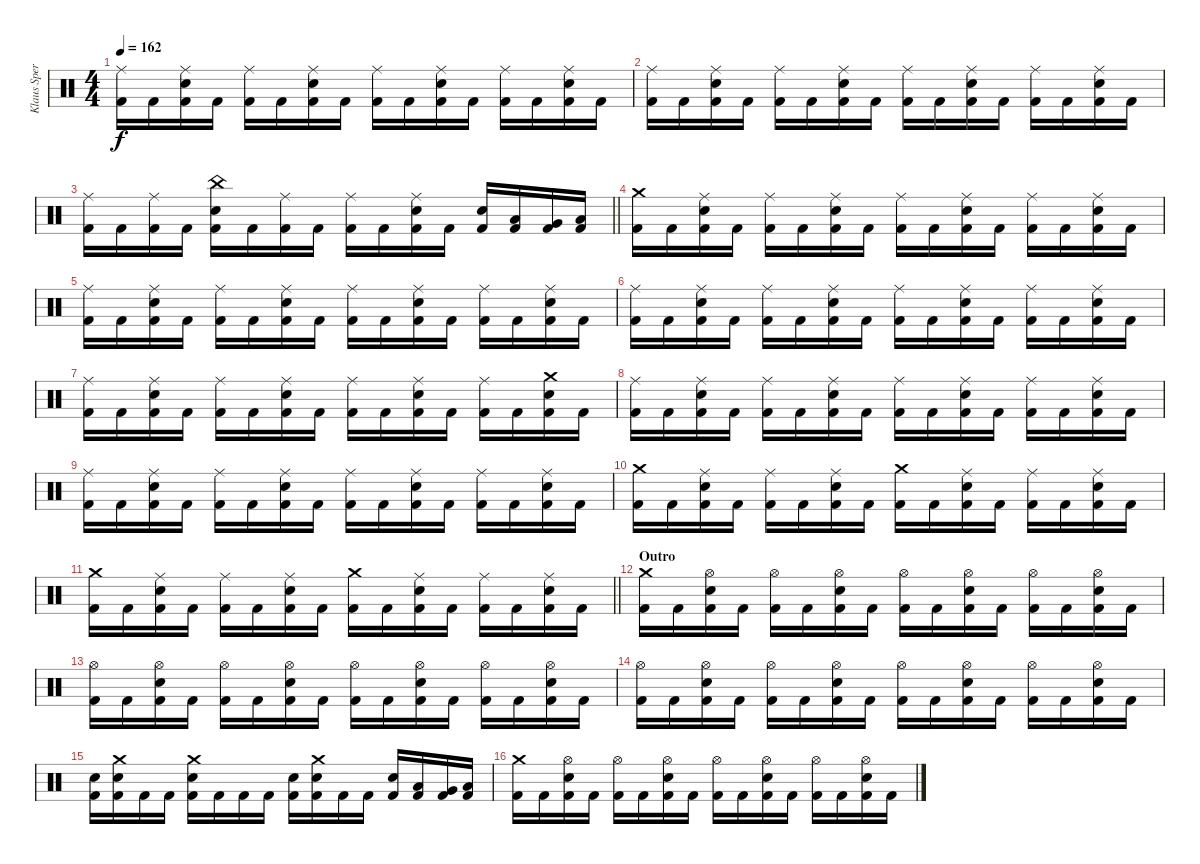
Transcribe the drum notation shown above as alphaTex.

\track ("Klaus Sperling" "Klaus Sper") {instrument percussion}
\staff {score}
\articulation defaults
\ts (4 4)
\tempo 162
\clef neutral
\ks c
("Ride (middle)" "Kick (hit) 2").16{dy f} "Kick (hit) 2".16 ("Ride (middle)" "Electric Snare (hit)" "Kick (hit) 2").16 "Kick (hit) 2".16 ("Ride (middle)" "Kick (hit) 2").16 "Kick (hit) 2".16 ("Ride (middle)" "Electric Snare (hit)" "Kick (hit) 2").16 "Kick (hit) 2".16 ("Ride (middle)" "Kick (hit) 2").16 "Kick (hit) 2".16 ("Ride (middle)" "Electric Snare (hit)" "Kick (hit) 2").16 "Kick (hit) 2".16 ("Ride (middle)" "Kick (hit) 2").16 "Kick (hit) 2".16 ("Ride (middle)" "Electric Snare (hit)" "Kick (hit) 2").16 "Kick (hit) 2".16 |
("Ride (middle)" "Kick (hit) 2").16 "Kick (hit) 2".16 ("Ride (middle)" "Electric Snare (hit)" "Kick (hit) 2").16 "Kick (hit) 2".16 ("Ride (middle)" "Kick (hit) 2").16 "Kick (hit) 2".16 ("Ride (middle)" "Electric Snare (hit)" "Kick (hit) 2").16 "Kick (hit) 2".16 ("Ride (middle)" "Kick (hit) 2").16 "Kick (hit) 2".16 ("Ride (middle)" "Electric Snare (hit)" "Kick (hit) 2").16 "Kick (hit) 2".16 ("Ride (middle)" "Kick (hit) 2").16 "Kick (hit) 2".16 ("Ride (middle)" "Electric Snare (hit)" "Kick (hit) 2").16 "Kick (hit) 2".16 |
\barLineRight lightlight
("Ride (middle)" "Kick (hit) 2").16 "Kick (hit) 2".16 ("Ride (middle)" "Kick (hit) 2").16 "Kick (hit) 2".16 ("China (hit)" "Electric Snare (hit)" "Kick (hit) 2").16 "Kick (hit) 2".16 ("Ride (middle)" "Kick (hit) 2").16 "Kick (hit) 2".16 ("Ride (middle)" "Kick (hit) 2").16 "Kick (hit) 2".16 ("Ride (middle)" "Electric Snare (hit)" "Kick (hit) 2").16 "Kick (hit) 2".16 ("Electric Snare (hit)" "Kick (hit) 2").16 ("Low Tom (hit)" "Kick (hit) 2").16 ("Very Low Tom (hit)" "Kick (hit) 2").16 ("Low Floor Tom (hit)" "Kick (hit) 2").16 |
("Crash medium (hit)" "Kick (hit) 2").16 "Kick (hit) 2".16 ("Ride (middle)" "Electric Snare (hit)" "Kick (hit) 2").16 "Kick (hit) 2".16 ("Ride (middle)" "Kick (hit) 2").16 "Kick (hit) 2".16 ("Ride (middle)" "Electric Snare (hit)" "Kick (hit) 2").16 "Kick (hit) 2".16 ("Ride (middle)" "Kick (hit) 2").16 "Kick (hit) 2".16 ("Ride (middle)" "Electric Snare (hit)" "Kick (hit) 2").16 "Kick (hit) 2".16 ("Ride (middle)" "Kick (hit) 2").16 "Kick (hit) 2".16 ("Ride (middle)" "Electric Snare (hit)" "Kick (hit) 2").16 "Kick (hit) 2".16 |
("Ride (middle)" "Kick (hit) 2").16 "Kick (hit) 2".16 ("Ride (middle)" "Electric Snare (hit)" "Kick (hit) 2").16 "Kick (hit) 2".16 ("Ride (middle)" "Kick (hit) 2").16 "Kick (hit) 2".16 ("Ride (middle)" "Electric Snare (hit)" "Kick (hit) 2").16 "Kick (hit) 2".16 ("Ride (middle)" "Kick (hit) 2").16 "Kick (hit) 2".16 ("Ride (middle)" "Electric Snare (hit)" "Kick (hit) 2").16 "Kick (hit) 2".16 ("Ride (middle)" "Kick (hit) 2").16 "Kick (hit) 2".16 ("Ride (middle)" "Electric Snare (hit)" "Kick (hit) 2").16 "Kick (hit) 2".16 |
("Ride (middle)" "Kick (hit) 2").16 "Kick (hit) 2".16 ("Ride (middle)" "Electric Snare (hit)" "Kick (hit) 2").16 "Kick (hit) 2".16 ("Ride (middle)" "Kick (hit) 2").16 "Kick (hit) 2".16 ("Ride (middle)" "Electric Snare (hit)" "Kick (hit) 2").16 "Kick (hit) 2".16 ("Ride (middle)" "Kick (hit) 2").16 "Kick (hit) 2".16 ("Ride (middle)" "Electric Snare (hit)" "Kick (hit) 2").16 "Kick (hit) 2".16 ("Ride (middle)" "Kick (hit) 2").16 "Kick (hit) 2".16 ("Ride (middle)" "Electric Snare (hit)" "Kick (hit) 2").16 "Kick (hit) 2".16 |
("Ride (middle)" "Kick (hit) 2").16 "Kick (hit) 2".16 ("Ride (middle)" "Electric Snare (hit)" "Kick (hit) 2").16 "Kick (hit) 2".16 ("Ride (middle)" "Kick (hit) 2").16 "Kick (hit) 2".16 ("Ride (middle)" "Electric Snare (hit)" "Kick (hit) 2").16 "Kick (hit) 2".16 ("Ride (middle)" "Kick (hit) 2").16 "Kick (hit) 2".16 ("Ride (middle)" "Electric Snare (hit)" "Kick (hit) 2").16 "Kick (hit) 2".16 ("Ride (middle)" "Kick (hit) 2").16 "Kick (hit) 2".16 ("Crash medium (hit)" "Electric Snare (hit)" "Kick (hit) 2").16 "Kick (hit) 2".16 |
("Ride (middle)" "Kick (hit) 2").16 "Kick (hit) 2".16 ("Ride (middle)" "Electric Snare (hit)" "Kick (hit) 2").16 "Kick (hit) 2".16 ("Ride (middle)" "Kick (hit) 2").16 "Kick (hit) 2".16 ("Ride (middle)" "Electric Snare (hit)" "Kick (hit) 2").16 "Kick (hit) 2".16 ("Ride (middle)" "Kick (hit) 2").16 "Kick (hit) 2".16 ("Ride (middle)" "Electric Snare (hit)" "Kick (hit) 2").16 "Kick (hit) 2".16 ("Ride (middle)" "Kick (hit) 2").16 "Kick (hit) 2".16 ("Ride (middle)" "Electric Snare (hit)" "Kick (hit) 2").16 "Kick (hit) 2".16 |
("Ride (middle)" "Kick (hit) 2").16 "Kick (hit) 2".16 ("Ride (middle)" "Electric Snare (hit)" "Kick (hit) 2").16 "Kick (hit) 2".16 ("Ride (middle)" "Kick (hit) 2").16 "Kick (hit) 2".16 ("Ride (middle)" "Electric Snare (hit)" "Kick (hit) 2").16 "Kick (hit) 2".16 ("Ride (middle)" "Kick (hit) 2").16 "Kick (hit) 2".16 ("Ride (middle)" "Electric Snare (hit)" "Kick (hit) 2").16 "Kick (hit) 2".16 ("Ride (middle)" "Kick (hit) 2").16 "Kick (hit) 2".16 ("Ride (middle)" "Electric Snare (hit)" "Kick (hit) 2").16 "Kick (hit) 2".16 |
("Crash medium (hit)" "Kick (hit) 2").16 "Kick (hit) 2".16 ("Ride (middle)" "Electric Snare (hit)" "Kick (hit) 2").16 "Kick (hit) 2".16 ("Ride (middle)" "Kick (hit) 2").16 "Kick (hit) 2".16 ("Ride (middle)" "Electric Snare (hit)" "Kick (hit) 2").16 "Kick (hit) 2".16 ("Crash medium (hit)" "Kick (hit) 2").16 "Kick (hit) 2".16 ("Ride (middle)" "Electric Snare (hit)" "Kick (hit) 2").16 "Kick (hit) 2".16 ("Ride (middle)" "Kick (hit) 2").16 "Kick (hit) 2".16 ("Ride (middle)" "Electric Snare (hit)" "Kick (hit) 2").16 "Kick (hit) 2".16 |
\barLineRight lightlight
("Crash medium (hit)" "Kick (hit) 2").16 "Kick (hit) 2".16 ("Ride (middle)" "Electric Snare (hit)" "Kick (hit) 2").16 "Kick (hit) 2".16 ("Ride (middle)" "Kick (hit) 2").16 "Kick (hit) 2".16 ("Ride (middle)" "Electric Snare (hit)" "Kick (hit) 2").16 "Kick (hit) 2".16 ("Crash medium (hit)" "Kick (hit) 2").16 "Kick (hit) 2".16 ("Ride (middle)" "Electric Snare (hit)" "Kick (hit) 2").16 "Kick (hit) 2".16 ("Ride (middle)" "Kick (hit) 2").16 "Kick (hit) 2".16 ("Ride (middle)" "Electric Snare (hit)" "Kick (hit) 2").16 "Kick (hit) 2".16 |
\section ("" "Outro")
("Crash medium (hit)" "Kick (hit) 2").16 "Kick (hit) 2".16 ("Hi-Hat (open)" "Electric Snare (hit)" "Kick (hit) 2").16 "Kick (hit) 2".16 ("Hi-Hat (open)" "Kick (hit) 2").16 "Kick (hit) 2".16 ("Hi-Hat (open)" "Electric Snare (hit)" "Kick (hit) 2").16 "Kick (hit) 2".16 ("Hi-Hat (open)" "Kick (hit) 2").16 "Kick (hit) 2".16 ("Hi-Hat (open)" "Electric Snare (hit)" "Kick (hit) 2").16 "Kick (hit) 2".16 ("Hi-Hat (open)" "Kick (hit) 2").16 "Kick (hit) 2".16 ("Hi-Hat (open)" "Electric Snare (hit)" "Kick (hit) 2").16 "Kick (hit) 2".16 |
("Hi-Hat (open)" "Kick (hit) 2").16 "Kick (hit) 2".16 ("Hi-Hat (open)" "Electric Snare (hit)" "Kick (hit) 2").16 "Kick (hit) 2".16 ("Hi-Hat (open)" "Kick (hit) 2").16 "Kick (hit) 2".16 ("Hi-Hat (open)" "Electric Snare (hit)" "Kick (hit) 2").16 "Kick (hit) 2".16 ("Hi-Hat (open)" "Kick (hit) 2").16 "Kick (hit) 2".16 ("Hi-Hat (open)" "Electric Snare (hit)" "Kick (hit) 2").16 "Kick (hit) 2".16 ("Hi-Hat (open)" "Kick (hit) 2").16 "Kick (hit) 2".16 ("Hi-Hat (open)" "Electric Snare (hit)" "Kick (hit) 2").16 "Kick (hit) 2".16 |
("Hi-Hat (open)" "Kick (hit) 2").16 "Kick (hit) 2".16 ("Hi-Hat (open)" "Electric Snare (hit)" "Kick (hit) 2").16 "Kick (hit) 2".16 ("Hi-Hat (open)" "Kick (hit) 2").16 "Kick (hit) 2".16 ("Hi-Hat (open)" "Electric Snare (hit)" "Kick (hit) 2").16 "Kick (hit) 2".16 ("Hi-Hat (open)" "Kick (hit) 2").16 "Kick (hit) 2".16 ("Hi-Hat (open)" "Electric Snare (hit)" "Kick (hit) 2").16 "Kick (hit) 2".16 ("Hi-Hat (open)" "Kick (hit) 2").16 "Kick (hit) 2".16 ("Hi-Hat (open)" "Electric Snare (hit)" "Kick (hit) 2").16 "Kick (hit) 2".16 |
("Electric Snare (hit)" "Kick (hit) 2").16 ("Crash medium (hit)" "Electric Snare (hit)" "Kick (hit) 2").16 "Kick (hit) 2".16 "Kick (hit) 2".16 ("Crash medium (hit)" "Electric Snare (hit)" "Kick (hit) 2").16 "Kick (hit) 2".16 "Kick (hit) 2".16 "Kick (hit) 2".16 ("Electric Snare (hit)" "Kick (hit) 2").16 ("Crash medium (hit)" "Electric Snare (hit)" "Kick (hit) 2").16 "Kick (hit) 2".16 "Kick (hit) 2".16 ("Electric Snare (hit)" "Kick (hit) 2").16 ("Low Tom (hit)" "Kick (hit) 2").16 ("Very Low Tom (hit)" "Kick (hit) 2").16 ("Low Floor Tom (hit)" "Kick (hit) 2").16 |
("Crash medium (hit)" "Kick (hit) 2").16 "Kick (hit) 2".16 ("Hi-Hat (open)" "Electric Snare (hit)" "Kick (hit) 2").16 "Kick (hit) 2".16 ("Hi-Hat (open)" "Kick (hit) 2").16 "Kick (hit) 2".16 ("Hi-Hat (open)" "Electric Snare (hit)" "Kick (hit) 2").16 "Kick (hit) 2".16 ("Hi-Hat (open)" "Kick (hit) 2").16 "Kick (hit) 2".16 ("Hi-Hat (open)" "Electric Snare (hit)" "Kick (hit) 2").16 "Kick (hit) 2".16 ("Hi-Hat (open)" "Kick (hit) 2").16 "Kick (hit) 2".16 ("Hi-Hat (open)" "Electric Snare (hit)" "Kick (hit) 2").16 "Kick (hit) 2".16
